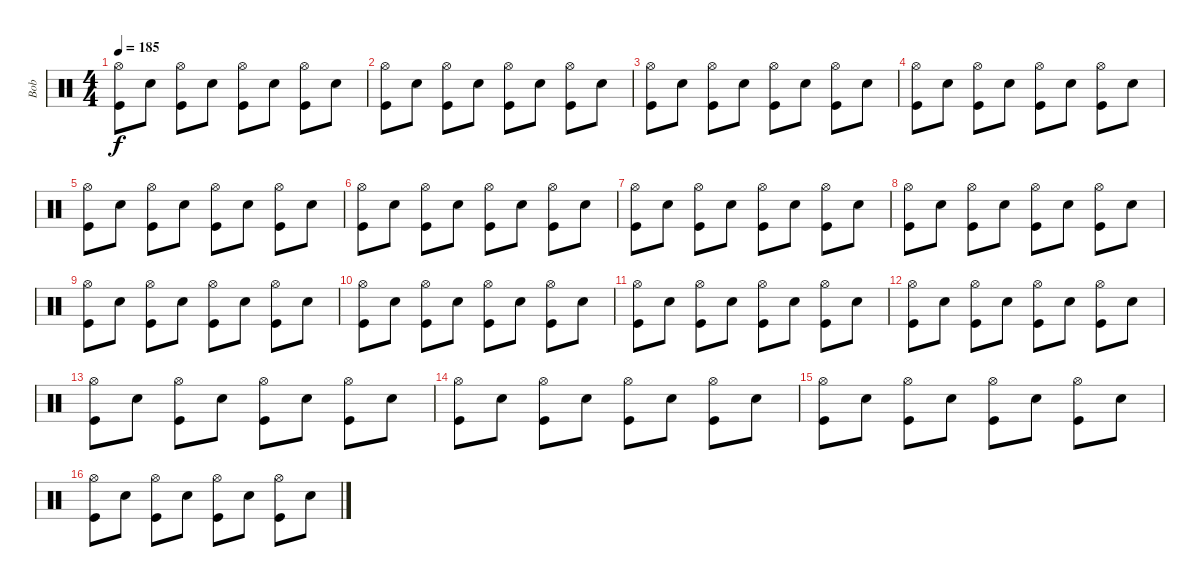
\track ("Bob" "Bob") {instrument percussion}
\staff {score}
\articulation defaults
\ts (4 4)
\tempo 185
\clef neutral
\ks c
("Hi-Hat (open)" "Kick (hit)").8{dy f} "Snare (hit) 2".8 ("Hi-Hat (open)" "Kick (hit)").8 "Snare (hit) 2".8 ("Hi-Hat (open)" "Kick (hit)").8 "Snare (hit) 2".8 ("Hi-Hat (open)" "Kick (hit)").8 "Snare (hit) 2".8 |
("Hi-Hat (open)" "Kick (hit)").8 "Snare (hit) 2".8 ("Hi-Hat (open)" "Kick (hit)").8 "Snare (hit) 2".8 ("Hi-Hat (open)" "Kick (hit)").8 "Snare (hit) 2".8 ("Hi-Hat (open)" "Kick (hit)").8 "Snare (hit) 2".8 |
("Hi-Hat (open)" "Kick (hit)").8 "Snare (hit) 2".8 ("Hi-Hat (open)" "Kick (hit)").8 "Snare (hit) 2".8 ("Hi-Hat (open)" "Kick (hit)").8 "Snare (hit) 2".8 ("Hi-Hat (open)" "Kick (hit)").8 "Snare (hit) 2".8 |
("Hi-Hat (open)" "Kick (hit)").8 "Snare (hit) 2".8 ("Hi-Hat (open)" "Kick (hit)").8 "Snare (hit) 2".8 ("Hi-Hat (open)" "Kick (hit)").8 "Snare (hit) 2".8 ("Hi-Hat (open)" "Kick (hit)").8 "Snare (hit) 2".8 |
("Hi-Hat (open)" "Kick (hit)").8 "Snare (hit) 2".8 ("Hi-Hat (open)" "Kick (hit)").8 "Snare (hit) 2".8 ("Hi-Hat (open)" "Kick (hit)").8 "Snare (hit) 2".8 ("Hi-Hat (open)" "Kick (hit)").8 "Snare (hit) 2".8 |
("Hi-Hat (open)" "Kick (hit)").8 "Snare (hit) 2".8 ("Hi-Hat (open)" "Kick (hit)").8 "Snare (hit) 2".8 ("Hi-Hat (open)" "Kick (hit)").8 "Snare (hit) 2".8 ("Hi-Hat (open)" "Kick (hit)").8 "Snare (hit) 2".8 |
("Hi-Hat (open)" "Kick (hit)").8 "Snare (hit) 2".8 ("Hi-Hat (open)" "Kick (hit)").8 "Snare (hit) 2".8 ("Hi-Hat (open)" "Kick (hit)").8 "Snare (hit) 2".8 ("Hi-Hat (open)" "Kick (hit)").8 "Snare (hit) 2".8 |
("Hi-Hat (open)" "Kick (hit)").8 "Snare (hit) 2".8 ("Hi-Hat (open)" "Kick (hit)").8 "Snare (hit) 2".8 ("Hi-Hat (open)" "Kick (hit)").8 "Snare (hit) 2".8 ("Hi-Hat (open)" "Kick (hit)").8 "Snare (hit) 2".8 |
("Hi-Hat (open)" "Kick (hit)").8 "Snare (hit) 2".8 ("Hi-Hat (open)" "Kick (hit)").8 "Snare (hit) 2".8 ("Hi-Hat (open)" "Kick (hit)").8 "Snare (hit) 2".8 ("Hi-Hat (open)" "Kick (hit)").8 "Snare (hit) 2".8 |
("Hi-Hat (open)" "Kick (hit)").8 "Snare (hit) 2".8 ("Hi-Hat (open)" "Kick (hit)").8 "Snare (hit) 2".8 ("Hi-Hat (open)" "Kick (hit)").8 "Snare (hit) 2".8 ("Hi-Hat (open)" "Kick (hit)").8 "Snare (hit) 2".8 |
("Hi-Hat (open)" "Kick (hit)").8 "Snare (hit) 2".8 ("Hi-Hat (open)" "Kick (hit)").8 "Snare (hit) 2".8 ("Hi-Hat (open)" "Kick (hit)").8 "Snare (hit) 2".8 ("Hi-Hat (open)" "Kick (hit)").8 "Snare (hit) 2".8 |
("Hi-Hat (open)" "Kick (hit)").8 "Snare (hit) 2".8 ("Hi-Hat (open)" "Kick (hit)").8 "Snare (hit) 2".8 ("Hi-Hat (open)" "Kick (hit)").8 "Snare (hit) 2".8 ("Hi-Hat (open)" "Kick (hit)").8 "Snare (hit) 2".8 |
("Hi-Hat (open)" "Kick (hit)").8 "Snare (hit) 2".8 ("Hi-Hat (open)" "Kick (hit)").8 "Snare (hit) 2".8 ("Hi-Hat (open)" "Kick (hit)").8 "Snare (hit) 2".8 ("Hi-Hat (open)" "Kick (hit)").8 "Snare (hit) 2".8 |
("Hi-Hat (open)" "Kick (hit)").8 "Snare (hit) 2".8 ("Hi-Hat (open)" "Kick (hit)").8 "Snare (hit) 2".8 ("Hi-Hat (open)" "Kick (hit)").8 "Snare (hit) 2".8 ("Hi-Hat (open)" "Kick (hit)").8 "Snare (hit) 2".8 |
("Hi-Hat (open)" "Kick (hit)").8 "Snare (hit) 2".8 ("Hi-Hat (open)" "Kick (hit)").8 "Snare (hit) 2".8 ("Hi-Hat (open)" "Kick (hit)").8 "Snare (hit) 2".8 ("Hi-Hat (open)" "Kick (hit)").8 "Snare (hit) 2".8 |
("Hi-Hat (open)" "Kick (hit)").8 "Snare (hit) 2".8 ("Hi-Hat (open)" "Kick (hit)").8 "Snare (hit) 2".8 ("Hi-Hat (open)" "Kick (hit)").8 "Snare (hit) 2".8 ("Hi-Hat (open)" "Kick (hit)").8 "Snare (hit) 2".8
